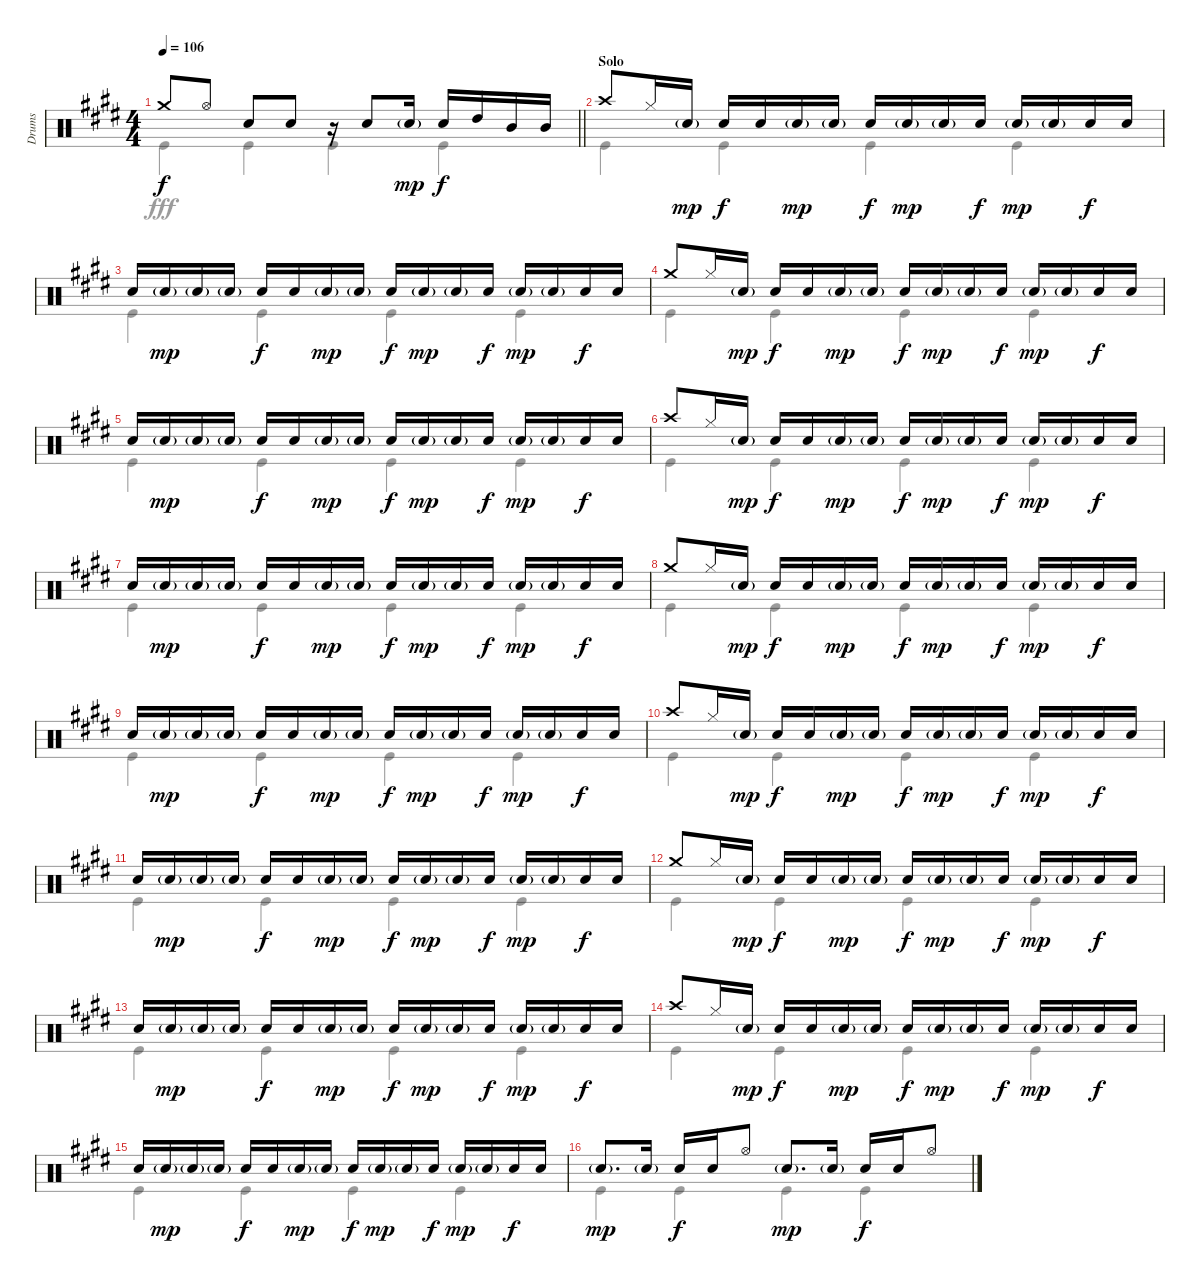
\track ("Drums" "Drums") {instrument percussion}
\staff {score}
\articulation defaults
\voice
\ts (4 4)
\tempo 106
\clef neutral
\barLineRight lightlight
\ks e "Crash medium (hit)".8{dy f} "Hi-Hat (open)".8 "Snare (hit) 2".8 "Snare (hit) 2".8
r.16 "Snare (hit) 2".8 "Snare (hit) 2"{g}.16{dy mp} "Snare (hit) 2".16{dy f} "High Tom (hit)".16 "Mid Tom (hit)".16 "Mid Tom (hit)".16 |
\section ("" "Solo")
"Crash high (hit)".8 "Hi-Hat (closed)".16 "Snare (hit) 2"{g}.16{dy mp} "Snare (hit) 2".16{dy f} "Snare (hit) 2".16 "Snare (hit) 2"{g}.16{dy mp} "Snare (hit) 2"{g}.16 "Snare (hit) 2".16{dy f} "Snare (hit) 2"{g}.16{dy mp} "Snare (hit) 2"{g}.16 "Snare (hit) 2".16{dy f} "Snare (hit) 2"{g}.16{dy mp} "Snare (hit) 2"{g}.16 "Snare (hit) 2".16{dy f} "Snare (hit) 2".16 |
"Snare (hit) 2".16 "Snare (hit) 2"{g}.16{dy mp} "Snare (hit) 2"{g}.16 "Snare (hit) 2"{g}.16 "Snare (hit) 2".16{dy f} "Snare (hit) 2".16 "Snare (hit) 2"{g}.16{dy mp} "Snare (hit) 2"{g}.16 "Snare (hit) 2".16{dy f} "Snare (hit) 2"{g}.16{dy mp} "Snare (hit) 2"{g}.16 "Snare (hit) 2".16{dy f} "Snare (hit) 2"{g}.16{dy mp} "Snare (hit) 2"{g}.16 "Snare (hit) 2".16{dy f} "Snare (hit) 2".16 |
"Crash medium (hit)".8 "Hi-Hat (closed)".16 "Snare (hit) 2"{g}.16{dy mp} "Snare (hit) 2".16{dy f} "Snare (hit) 2".16 "Snare (hit) 2"{g}.16{dy mp} "Snare (hit) 2"{g}.16 "Snare (hit) 2".16{dy f} "Snare (hit) 2"{g}.16{dy mp} "Snare (hit) 2"{g}.16 "Snare (hit) 2".16{dy f} "Snare (hit) 2"{g}.16{dy mp} "Snare (hit) 2"{g}.16 "Snare (hit) 2".16{dy f} "Snare (hit) 2".16 |
"Snare (hit) 2".16 "Snare (hit) 2"{g}.16{dy mp} "Snare (hit) 2"{g}.16 "Snare (hit) 2"{g}.16 "Snare (hit) 2".16{dy f} "Snare (hit) 2".16 "Snare (hit) 2"{g}.16{dy mp} "Snare (hit) 2"{g}.16 "Snare (hit) 2".16{dy f} "Snare (hit) 2"{g}.16{dy mp} "Snare (hit) 2"{g}.16 "Snare (hit) 2".16{dy f} "Snare (hit) 2"{g}.16{dy mp} "Snare (hit) 2"{g}.16 "Snare (hit) 2".16{dy f} "Snare (hit) 2".16 |
"Crash high (hit)".8 "Hi-Hat (closed)".16 "Snare (hit) 2"{g}.16{dy mp} "Snare (hit) 2".16{dy f} "Snare (hit) 2".16 "Snare (hit) 2"{g}.16{dy mp} "Snare (hit) 2"{g}.16 "Snare (hit) 2".16{dy f} "Snare (hit) 2"{g}.16{dy mp} "Snare (hit) 2"{g}.16 "Snare (hit) 2".16{dy f} "Snare (hit) 2"{g}.16{dy mp} "Snare (hit) 2"{g}.16 "Snare (hit) 2".16{dy f} "Snare (hit) 2".16 |
"Snare (hit) 2".16 "Snare (hit) 2"{g}.16{dy mp} "Snare (hit) 2"{g}.16 "Snare (hit) 2"{g}.16 "Snare (hit) 2".16{dy f} "Snare (hit) 2".16 "Snare (hit) 2"{g}.16{dy mp} "Snare (hit) 2"{g}.16 "Snare (hit) 2".16{dy f} "Snare (hit) 2"{g}.16{dy mp} "Snare (hit) 2"{g}.16 "Snare (hit) 2".16{dy f} "Snare (hit) 2"{g}.16{dy mp} "Snare (hit) 2"{g}.16 "Snare (hit) 2".16{dy f} "Snare (hit) 2".16 |
"Crash medium (hit)".8 "Hi-Hat (closed)".16 "Snare (hit) 2"{g}.16{dy mp} "Snare (hit) 2".16{dy f} "Snare (hit) 2".16 "Snare (hit) 2"{g}.16{dy mp} "Snare (hit) 2"{g}.16 "Snare (hit) 2".16{dy f} "Snare (hit) 2"{g}.16{dy mp} "Snare (hit) 2"{g}.16 "Snare (hit) 2".16{dy f} "Snare (hit) 2"{g}.16{dy mp} "Snare (hit) 2"{g}.16 "Snare (hit) 2".16{dy f} "Snare (hit) 2".16 |
"Snare (hit) 2".16 "Snare (hit) 2"{g}.16{dy mp} "Snare (hit) 2"{g}.16 "Snare (hit) 2"{g}.16 "Snare (hit) 2".16{dy f} "Snare (hit) 2".16 "Snare (hit) 2"{g}.16{dy mp} "Snare (hit) 2"{g}.16 "Snare (hit) 2".16{dy f} "Snare (hit) 2"{g}.16{dy mp} "Snare (hit) 2"{g}.16 "Snare (hit) 2".16{dy f} "Snare (hit) 2"{g}.16{dy mp} "Snare (hit) 2"{g}.16 "Snare (hit) 2".16{dy f} "Snare (hit) 2".16 |
"Crash high (hit)".8 "Hi-Hat (closed)".16 "Snare (hit) 2"{g}.16{dy mp} "Snare (hit) 2".16{dy f} "Snare (hit) 2".16 "Snare (hit) 2"{g}.16{dy mp} "Snare (hit) 2"{g}.16 "Snare (hit) 2".16{dy f} "Snare (hit) 2"{g}.16{dy mp} "Snare (hit) 2"{g}.16 "Snare (hit) 2".16{dy f} "Snare (hit) 2"{g}.16{dy mp} "Snare (hit) 2"{g}.16 "Snare (hit) 2".16{dy f} "Snare (hit) 2".16 |
"Snare (hit) 2".16 "Snare (hit) 2"{g}.16{dy mp} "Snare (hit) 2"{g}.16 "Snare (hit) 2"{g}.16 "Snare (hit) 2".16{dy f} "Snare (hit) 2".16 "Snare (hit) 2"{g}.16{dy mp} "Snare (hit) 2"{g}.16 "Snare (hit) 2".16{dy f} "Snare (hit) 2"{g}.16{dy mp} "Snare (hit) 2"{g}.16 "Snare (hit) 2".16{dy f} "Snare (hit) 2"{g}.16{dy mp} "Snare (hit) 2"{g}.16 "Snare (hit) 2".16{dy f} "Snare (hit) 2".16 |
"Crash medium (hit)".8 "Hi-Hat (closed)".16 "Snare (hit) 2"{g}.16{dy mp} "Snare (hit) 2".16{dy f} "Snare (hit) 2".16 "Snare (hit) 2"{g}.16{dy mp} "Snare (hit) 2"{g}.16 "Snare (hit) 2".16{dy f} "Snare (hit) 2"{g}.16{dy mp} "Snare (hit) 2"{g}.16 "Snare (hit) 2".16{dy f} "Snare (hit) 2"{g}.16{dy mp} "Snare (hit) 2"{g}.16 "Snare (hit) 2".16{dy f} "Snare (hit) 2".16 |
"Snare (hit) 2".16 "Snare (hit) 2"{g}.16{dy mp} "Snare (hit) 2"{g}.16 "Snare (hit) 2"{g}.16 "Snare (hit) 2".16{dy f} "Snare (hit) 2".16 "Snare (hit) 2"{g}.16{dy mp} "Snare (hit) 2"{g}.16 "Snare (hit) 2".16{dy f} "Snare (hit) 2"{g}.16{dy mp} "Snare (hit) 2"{g}.16 "Snare (hit) 2".16{dy f} "Snare (hit) 2"{g}.16{dy mp} "Snare (hit) 2"{g}.16 "Snare (hit) 2".16{dy f} "Snare (hit) 2".16 |
"Crash high (hit)".8 "Hi-Hat (closed)".16 "Snare (hit) 2"{g}.16{dy mp} "Snare (hit) 2".16{dy f} "Snare (hit) 2".16 "Snare (hit) 2"{g}.16{dy mp} "Snare (hit) 2"{g}.16 "Snare (hit) 2".16{dy f} "Snare (hit) 2"{g}.16{dy mp} "Snare (hit) 2"{g}.16 "Snare (hit) 2".16{dy f} "Snare (hit) 2"{g}.16{dy mp} "Snare (hit) 2"{g}.16 "Snare (hit) 2".16{dy f} "Snare (hit) 2".16 |
"Snare (hit) 2".16 "Snare (hit) 2"{g}.16{dy mp} "Snare (hit) 2"{g}.16 "Snare (hit) 2"{g}.16 "Snare (hit) 2".16{dy f} "Snare (hit) 2".16 "Snare (hit) 2"{g}.16{dy mp} "Snare (hit) 2"{g}.16 "Snare (hit) 2".16{dy f} "Snare (hit) 2"{g}.16{dy mp} "Snare (hit) 2"{g}.16 "Snare (hit) 2".16{dy f} "Snare (hit) 2"{g}.16{dy mp} "Snare (hit) 2"{g}.16 "Snare (hit) 2".16{dy f} "Snare (hit) 2".16 |
"Snare (hit) 2"{g}.8{d dy mp} "Snare (hit) 2"{g}.16 "Snare (hit) 2".16{dy f} "Snare (hit) 2".16 "Hi-Hat (open)".8 "Snare (hit) 2"{g}.8{d dy mp} "Snare (hit) 2"{g}.16 "Snare (hit) 2".16{dy f} "Snare (hit) 2".16 "Hi-Hat (open)".8
\voice
\clef neutral
\ottava regular
\simile none
\barLineRight lightlight
\ks e "Kick (hit)".4{dy fff} "Kick (hit)".4 "Kick (hit)".4 "Kick (hit)".4
|
"Kick (hit)".4 "Kick (hit)".4 "Kick (hit)".4 "Kick (hit)".4 |
"Kick (hit)".4 "Kick (hit)".4 "Kick (hit)".4 "Kick (hit)".4 |
"Kick (hit)".4 "Kick (hit)".4 "Kick (hit)".4 "Kick (hit)".4 |
"Kick (hit)".4 "Kick (hit)".4 "Kick (hit)".4 "Kick (hit)".4 |
"Kick (hit)".4 "Kick (hit)".4 "Kick (hit)".4 "Kick (hit)".4 |
"Kick (hit)".4 "Kick (hit)".4 "Kick (hit)".4 "Kick (hit)".4 |
"Kick (hit)".4 "Kick (hit)".4 "Kick (hit)".4 "Kick (hit)".4 |
"Kick (hit)".4 "Kick (hit)".4 "Kick (hit)".4 "Kick (hit)".4 |
"Kick (hit)".4 "Kick (hit)".4 "Kick (hit)".4 "Kick (hit)".4 |
"Kick (hit)".4 "Kick (hit)".4 "Kick (hit)".4 "Kick (hit)".4 |
"Kick (hit)".4 "Kick (hit)".4 "Kick (hit)".4 "Kick (hit)".4 |
"Kick (hit)".4 "Kick (hit)".4 "Kick (hit)".4 "Kick (hit)".4 |
"Kick (hit)".4 "Kick (hit)".4 "Kick (hit)".4 "Kick (hit)".4 |
"Kick (hit)".4 "Kick (hit)".4 "Kick (hit)".4 "Kick (hit)".4 |
"Kick (hit)".4 "Kick (hit)".4 "Kick (hit)".4 "Kick (hit)".4
